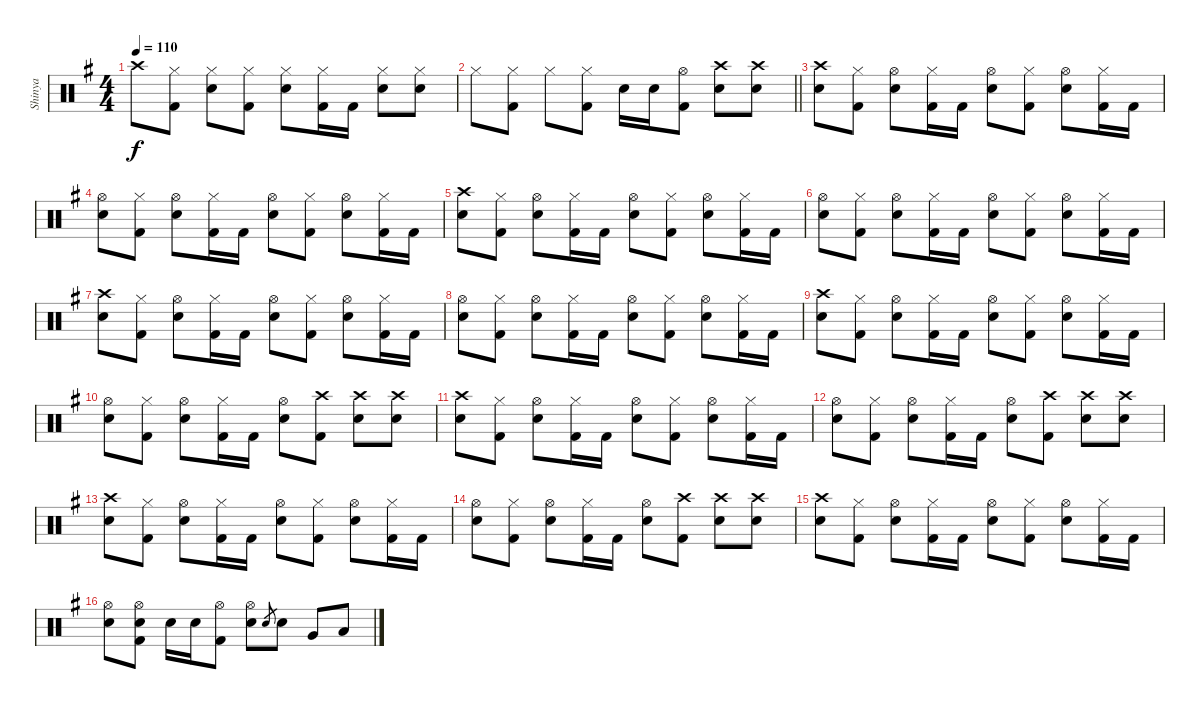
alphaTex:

\track ("Shinya" "Shinya") {instrument percussion}
\staff {score}
\articulation defaults
\ts (4 4)
\tempo 110
\clef neutral
\ks g "Crash high (hit)".8{dy f}
("Hi-Hat (closed)" "Kick (hit) 2").8 ("Hi-Hat (closed)" "Electric Snare (hit)").8 ("Hi-Hat (closed)" "Kick (hit) 2").8 ("Hi-Hat (closed)" "Electric Snare (hit)").8 ("Hi-Hat (closed)" "Kick (hit) 2").16 "Kick (hit) 2".16 ("Hi-Hat (closed)" "Electric Snare (hit)").8 ("Hi-Hat (closed)" "Hand Clap (hit)").8 |
\barLineRight lightlight "Hi-Hat (closed)".8
("Hi-Hat (closed)" "Kick (hit) 2").8 "Hi-Hat (closed)".8 ("Hi-Hat (closed)" "Kick (hit) 2").8 "Electric Snare (hit)".16 "Electric Snare (hit)".16 ("Hi-Hat (open)" "Kick (hit) 2").8 ("Crash high (hit)" "Electric Snare (hit)").8 ("Crash high (hit)" "Electric Snare (hit)").8 |
("Crash high (hit)" "Electric Snare (hit)").8 ("Hi-Hat (closed)" "Kick (hit) 2").8 ("Hi-Hat (open)" "Electric Snare (hit)").8 ("Hi-Hat (closed)" "Kick (hit) 2").16 "Kick (hit) 2".16 ("Hi-Hat (open)" "Electric Snare (hit)").8 ("Hi-Hat (closed)" "Kick (hit) 2").8 ("Hi-Hat (open)" "Electric Snare (hit)").8 ("Hi-Hat (closed)" "Kick (hit) 2").16 "Kick (hit) 2".16 |
("Hi-Hat (open)" "Electric Snare (hit)").8 ("Hi-Hat (closed)" "Kick (hit) 2").8 ("Hi-Hat (open)" "Electric Snare (hit)").8 ("Hi-Hat (closed)" "Kick (hit) 2").16 "Kick (hit) 2".16 ("Hi-Hat (open)" "Electric Snare (hit)").8 ("Hi-Hat (closed)" "Kick (hit) 2").8 ("Hi-Hat (open)" "Electric Snare (hit)").8 ("Hi-Hat (closed)" "Kick (hit) 2").16 "Kick (hit) 2".16 |
("Crash high (hit)" "Electric Snare (hit)").8 ("Hi-Hat (closed)" "Kick (hit) 2").8 ("Hi-Hat (open)" "Electric Snare (hit)").8 ("Hi-Hat (closed)" "Kick (hit) 2").16 "Kick (hit) 2".16 ("Hi-Hat (open)" "Electric Snare (hit)").8 ("Hi-Hat (closed)" "Kick (hit) 2").8 ("Hi-Hat (open)" "Electric Snare (hit)").8 ("Hi-Hat (closed)" "Kick (hit) 2").16 "Kick (hit) 2".16 |
("Hi-Hat (open)" "Electric Snare (hit)").8 ("Hi-Hat (closed)" "Kick (hit) 2").8 ("Hi-Hat (open)" "Electric Snare (hit)").8 ("Hi-Hat (closed)" "Kick (hit) 2").16 "Kick (hit) 2".16 ("Hi-Hat (open)" "Electric Snare (hit)").8 ("Hi-Hat (closed)" "Kick (hit) 2").8 ("Hi-Hat (open)" "Electric Snare (hit)").8 ("Hi-Hat (closed)" "Kick (hit) 2").16 "Kick (hit) 2".16 |
("Crash high (hit)" "Electric Snare (hit)").8 ("Hi-Hat (closed)" "Kick (hit) 2").8 ("Hi-Hat (open)" "Electric Snare (hit)").8 ("Hi-Hat (closed)" "Kick (hit) 2").16 "Kick (hit) 2".16 ("Hi-Hat (open)" "Electric Snare (hit)").8 ("Hi-Hat (closed)" "Kick (hit) 2").8 ("Hi-Hat (open)" "Electric Snare (hit)").8 ("Hi-Hat (closed)" "Kick (hit) 2").16 "Kick (hit) 2".16 |
("Hi-Hat (open)" "Electric Snare (hit)").8 ("Hi-Hat (closed)" "Kick (hit) 2").8 ("Hi-Hat (open)" "Electric Snare (hit)").8 ("Hi-Hat (closed)" "Kick (hit) 2").16 "Kick (hit) 2".16 ("Hi-Hat (open)" "Electric Snare (hit)").8 ("Hi-Hat (closed)" "Kick (hit) 2").8 ("Hi-Hat (open)" "Electric Snare (hit)").8 ("Hi-Hat (closed)" "Kick (hit) 2").16 "Kick (hit) 2".16 |
("Crash high (hit)" "Electric Snare (hit)").8 ("Hi-Hat (closed)" "Kick (hit) 2").8 ("Hi-Hat (open)" "Electric Snare (hit)").8 ("Hi-Hat (closed)" "Kick (hit) 2").16 "Kick (hit) 2".16 ("Hi-Hat (open)" "Electric Snare (hit)").8 ("Hi-Hat (closed)" "Kick (hit) 2").8 ("Hi-Hat (open)" "Electric Snare (hit)").8 ("Hi-Hat (closed)" "Kick (hit) 2").16 "Kick (hit) 2".16 |
("Hi-Hat (open)" "Electric Snare (hit)").8 ("Hi-Hat (closed)" "Kick (hit) 2").8 ("Hi-Hat (open)" "Electric Snare (hit)").8 ("Hi-Hat (closed)" "Kick (hit) 2").16 "Kick (hit) 2".16 ("Hi-Hat (open)" "Electric Snare (hit)").8 ("Crash high (hit)" "Kick (hit) 2").8 ("Crash high (hit)" "Electric Snare (hit)").8 ("Crash high (hit)" "Electric Snare (hit)").8 |
("Crash high (hit)" "Electric Snare (hit)").8 ("Hi-Hat (closed)" "Kick (hit) 2").8 ("Hi-Hat (open)" "Electric Snare (hit)").8 ("Hi-Hat (closed)" "Kick (hit) 2").16 "Kick (hit) 2".16 ("Hi-Hat (open)" "Electric Snare (hit)").8 ("Hi-Hat (closed)" "Kick (hit) 2").8 ("Hi-Hat (open)" "Electric Snare (hit)").8 ("Hi-Hat (closed)" "Kick (hit) 2").16 "Kick (hit) 2".16 |
("Hi-Hat (open)" "Electric Snare (hit)").8 ("Hi-Hat (closed)" "Kick (hit) 2").8 ("Hi-Hat (open)" "Electric Snare (hit)").8 ("Hi-Hat (closed)" "Kick (hit) 2").16 "Kick (hit) 2".16 ("Hi-Hat (open)" "Electric Snare (hit)").8 ("Crash high (hit)" "Kick (hit) 2").8 ("Crash high (hit)" "Electric Snare (hit)").8 ("Crash high (hit)" "Electric Snare (hit)").8 |
("Crash high (hit)" "Electric Snare (hit)").8 ("Hi-Hat (closed)" "Kick (hit) 2").8 ("Hi-Hat (open)" "Electric Snare (hit)").8 ("Hi-Hat (closed)" "Kick (hit) 2").16 "Kick (hit) 2".16 ("Hi-Hat (open)" "Electric Snare (hit)").8 ("Hi-Hat (closed)" "Kick (hit) 2").8 ("Hi-Hat (open)" "Electric Snare (hit)").8 ("Hi-Hat (closed)" "Kick (hit) 2").16 "Kick (hit) 2".16 |
("Hi-Hat (open)" "Electric Snare (hit)").8 ("Hi-Hat (closed)" "Kick (hit) 2").8 ("Hi-Hat (open)" "Electric Snare (hit)").8 ("Hi-Hat (closed)" "Kick (hit) 2").16 "Kick (hit) 2".16 ("Hi-Hat (open)" "Electric Snare (hit)").8 ("Crash high (hit)" "Kick (hit) 2").8 ("Crash high (hit)" "Electric Snare (hit)").8 ("Crash high (hit)" "Electric Snare (hit)").8 |
("Crash high (hit)" "Electric Snare (hit)").8 ("Hi-Hat (closed)" "Kick (hit) 2").8 ("Hi-Hat (open)" "Electric Snare (hit)").8 ("Hi-Hat (closed)" "Kick (hit) 2").16 "Kick (hit) 2".16 ("Hi-Hat (open)" "Electric Snare (hit)").8 ("Hi-Hat (closed)" "Kick (hit) 2").8 ("Hi-Hat (open)" "Electric Snare (hit)").8 ("Hi-Hat (closed)" "Kick (hit) 2").16 "Kick (hit) 2".16 |
("Hi-Hat (open)" "Electric Snare (hit)").8 ("Hi-Hat (open)" "Electric Snare (hit)" "Kick (hit) 2").8 "Electric Snare (hit)".16 "Electric Snare (hit)".16 ("Hi-Hat (open)" "Kick (hit) 2").8 ("Hi-Hat (open)" "Electric Snare (hit)").8 "Electric Snare (hit)".8{gr} "Electric Snare (hit)".8 "Very Low Tom (hit)".8 "Low Floor Tom (hit)".8
